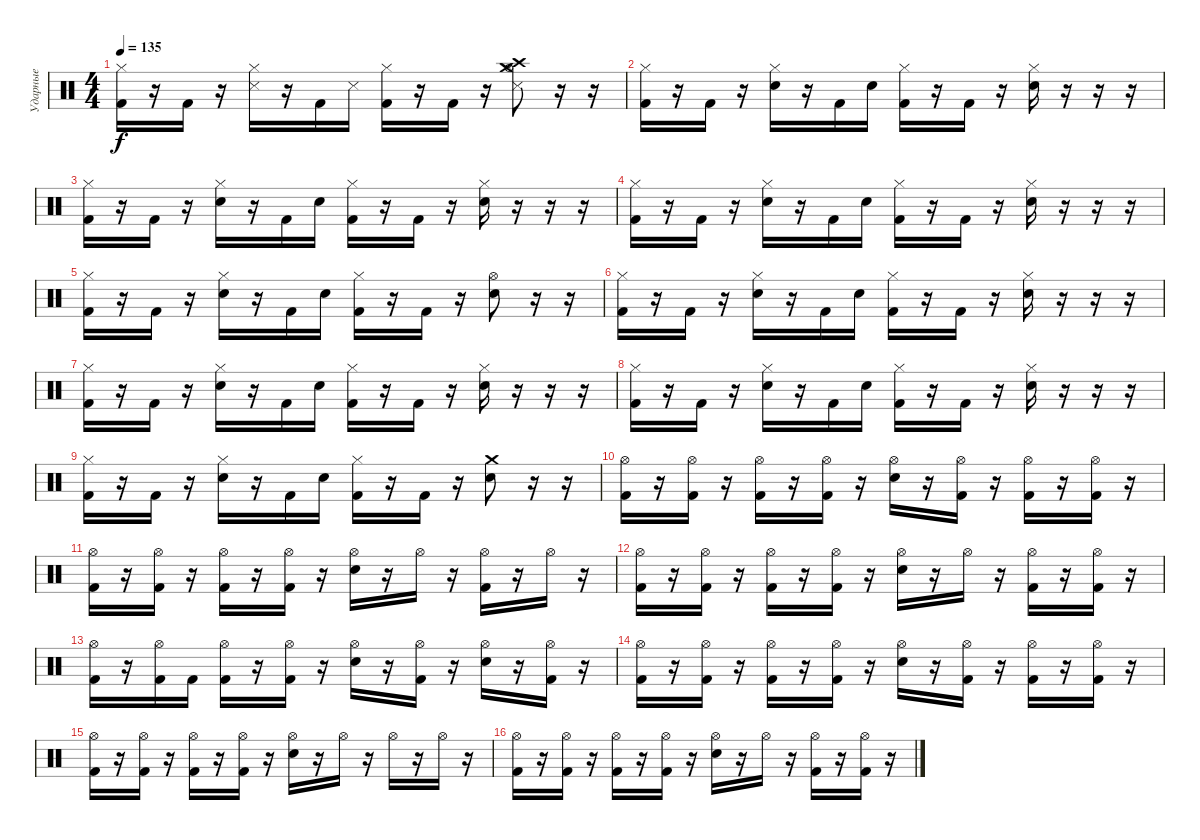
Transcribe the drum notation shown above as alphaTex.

\track ("Ударные" "Ударные") {instrument percussion}
\staff {score}
\articulation defaults
\ts (4 4)
\tempo 135
\clef neutral
\ks c
("Kick (hit) 2" "Hi-Hat (closed)").16{dy f} r.16 "Kick (hit) 2".16 r.16 ("Snare (side stick) 3" "Hi-Hat (closed)").16 r.16 "Kick (hit) 2".16 "Snare (side stick) 3".16 ("Kick (hit) 2" "Hi-Hat (closed)").16 r.16 "Kick (hit) 2".16 r.16 ("Snare (side stick) 3" "Hi-Hat (open)" "Crash high (hit)" "Crash medium (hit)").8 r.16 r.16 |
("Kick (hit) 2" "Hi-Hat (closed)").16 r.16 "Kick (hit) 2".16 r.16 ("Electric Snare (hit)" "Hi-Hat (closed)").16 r.16 "Kick (hit) 2".16 "Electric Snare (hit)".16 ("Kick (hit) 2" "Hi-Hat (closed)").16 r.16 "Kick (hit) 2".16 r.16 ("Electric Snare (hit)" "Hi-Hat (closed)").16 r.16 r.16 r.16 |
("Kick (hit) 2" "Hi-Hat (closed)").16 r.16 "Kick (hit) 2".16 r.16 ("Electric Snare (hit)" "Hi-Hat (closed)").16 r.16 "Kick (hit) 2".16 "Electric Snare (hit)".16 ("Kick (hit) 2" "Hi-Hat (closed)").16 r.16 "Kick (hit) 2".16 r.16 ("Electric Snare (hit)" "Hi-Hat (closed)").16 r.16 r.16 r.16 |
("Kick (hit) 2" "Hi-Hat (closed)").16 r.16 "Kick (hit) 2".16 r.16 ("Electric Snare (hit)" "Hi-Hat (closed)").16 r.16 "Kick (hit) 2".16 "Electric Snare (hit)".16 ("Kick (hit) 2" "Hi-Hat (closed)").16 r.16 "Kick (hit) 2".16 r.16 ("Electric Snare (hit)" "Hi-Hat (closed)").16 r.16 r.16 r.16 |
("Kick (hit) 2" "Hi-Hat (closed)").16 r.16 "Kick (hit) 2".16 r.16 ("Electric Snare (hit)" "Hi-Hat (closed)").16 r.16 "Kick (hit) 2".16 "Electric Snare (hit)".16 ("Kick (hit) 2" "Hi-Hat (closed)").16 r.16 "Kick (hit) 2".16 r.16 ("Electric Snare (hit)" "Hi-Hat (open)").8 r.16 r.16 |
("Kick (hit) 2" "Hi-Hat (closed)").16 r.16 "Kick (hit) 2".16 r.16 ("Electric Snare (hit)" "Hi-Hat (closed)").16 r.16 "Kick (hit) 2".16 "Electric Snare (hit)".16 ("Kick (hit) 2" "Hi-Hat (closed)").16 r.16 "Kick (hit) 2".16 r.16 ("Electric Snare (hit)" "Hi-Hat (closed)").16 r.16 r.16 r.16 |
("Kick (hit) 2" "Hi-Hat (closed)").16 r.16 "Kick (hit) 2".16 r.16 ("Electric Snare (hit)" "Hi-Hat (closed)").16 r.16 "Kick (hit) 2".16 "Electric Snare (hit)".16 ("Kick (hit) 2" "Hi-Hat (closed)").16 r.16 "Kick (hit) 2".16 r.16 ("Electric Snare (hit)" "Hi-Hat (closed)").16 r.16 r.16 r.16 |
("Kick (hit) 2" "Hi-Hat (closed)").16 r.16 "Kick (hit) 2".16 r.16 ("Electric Snare (hit)" "Hi-Hat (closed)").16 r.16 "Kick (hit) 2".16 "Electric Snare (hit)".16 ("Kick (hit) 2" "Hi-Hat (closed)").16 r.16 "Kick (hit) 2".16 r.16 ("Electric Snare (hit)" "Hi-Hat (closed)").16 r.16 r.16 r.16 |
("Kick (hit) 2" "Hi-Hat (closed)").16 r.16 "Kick (hit) 2".16 r.16 ("Electric Snare (hit)" "Hi-Hat (closed)").16 r.16 "Kick (hit) 2".16 "Electric Snare (hit)".16 ("Kick (hit) 2" "Hi-Hat (closed)").16 r.16 "Kick (hit) 2".16 r.16 ("Electric Snare (hit)" "Crash medium (hit)").8 r.16 r.16 |
("Kick (hit) 2" "Hi-Hat (open)").16 r.16 ("Kick (hit) 2" "Hi-Hat (open)").16 r.16 ("Kick (hit) 2" "Hi-Hat (open)").16 r.16 ("Kick (hit) 2" "Hi-Hat (open)").16 r.16 ("Electric Snare (hit)" "Hi-Hat (open)").16 r.16 ("Kick (hit) 2" "Hi-Hat (open)").16 r.16 ("Kick (hit) 2" "Hi-Hat (open)").16 r.16 ("Kick (hit) 2" "Hi-Hat (open)").16 r.16 |
("Kick (hit) 2" "Hi-Hat (open)").16 r.16 ("Kick (hit) 2" "Hi-Hat (open)").16 r.16 ("Kick (hit) 2" "Hi-Hat (open)").16 r.16 ("Kick (hit) 2" "Hi-Hat (open)").16 r.16 ("Electric Snare (hit)" "Hi-Hat (open)").16 r.16 "Hi-Hat (open)".16 r.16 ("Hi-Hat (open)" "Kick (hit) 2").16 r.16 "Hi-Hat (open)".16 r.16 |
("Kick (hit) 2" "Hi-Hat (open)").16 r.16 ("Kick (hit) 2" "Hi-Hat (open)").16 r.16 ("Kick (hit) 2" "Hi-Hat (open)").16 r.16 ("Kick (hit) 2" "Hi-Hat (open)").16 r.16 ("Electric Snare (hit)" "Hi-Hat (open)").16 r.16 "Hi-Hat (open)".16 r.16 ("Kick (hit) 2" "Hi-Hat (open)").16 r.16 ("Kick (hit) 2" "Hi-Hat (open)").16 r.16 |
("Hi-Hat (open)" "Kick (hit) 2").16 r.16 ("Hi-Hat (open)" "Kick (hit) 2").16 "Kick (hit) 2".16 ("Kick (hit) 2" "Hi-Hat (open)").16 r.16 ("Kick (hit) 2" "Hi-Hat (open)").16 r.16 ("Electric Snare (hit)" "Hi-Hat (open)").16 r.16 ("Kick (hit) 2" "Hi-Hat (open)").16 r.16 ("Electric Snare (hit)" "Hi-Hat (open)").16 r.16 ("Kick (hit) 2" "Hi-Hat (open)").16 r.16 |
("Kick (hit) 2" "Hi-Hat (open)").16 r.16 ("Kick (hit) 2" "Hi-Hat (open)").16 r.16 ("Kick (hit) 2" "Hi-Hat (open)").16 r.16 ("Kick (hit) 2" "Hi-Hat (open)").16 r.16 ("Electric Snare (hit)" "Hi-Hat (open)").16 r.16 ("Kick (hit) 2" "Hi-Hat (open)").16 r.16 ("Kick (hit) 2" "Hi-Hat (open)").16 r.16 ("Kick (hit) 2" "Hi-Hat (open)").16 r.16 |
("Kick (hit) 2" "Hi-Hat (open)").16 r.16 ("Kick (hit) 2" "Hi-Hat (open)").16 r.16 ("Kick (hit) 2" "Hi-Hat (open)").16 r.16 ("Kick (hit) 2" "Hi-Hat (open)").16 r.16 ("Electric Snare (hit)" "Hi-Hat (open)").16 r.16 "Hi-Hat (open)".16 r.16 "Hi-Hat (open)".16 r.16 "Hi-Hat (open)".16 r.16 |
("Kick (hit) 2" "Hi-Hat (open)").16 r.16 ("Kick (hit) 2" "Hi-Hat (open)").16 r.16 ("Kick (hit) 2" "Hi-Hat (open)").16 r.16 ("Kick (hit) 2" "Hi-Hat (open)").16 r.16 ("Electric Snare (hit)" "Hi-Hat (open)").16 r.16 "Hi-Hat (open)".16 r.16 ("Kick (hit) 2" "Hi-Hat (open)").16 r.16 ("Kick (hit) 2" "Hi-Hat (open)").16 r.16
